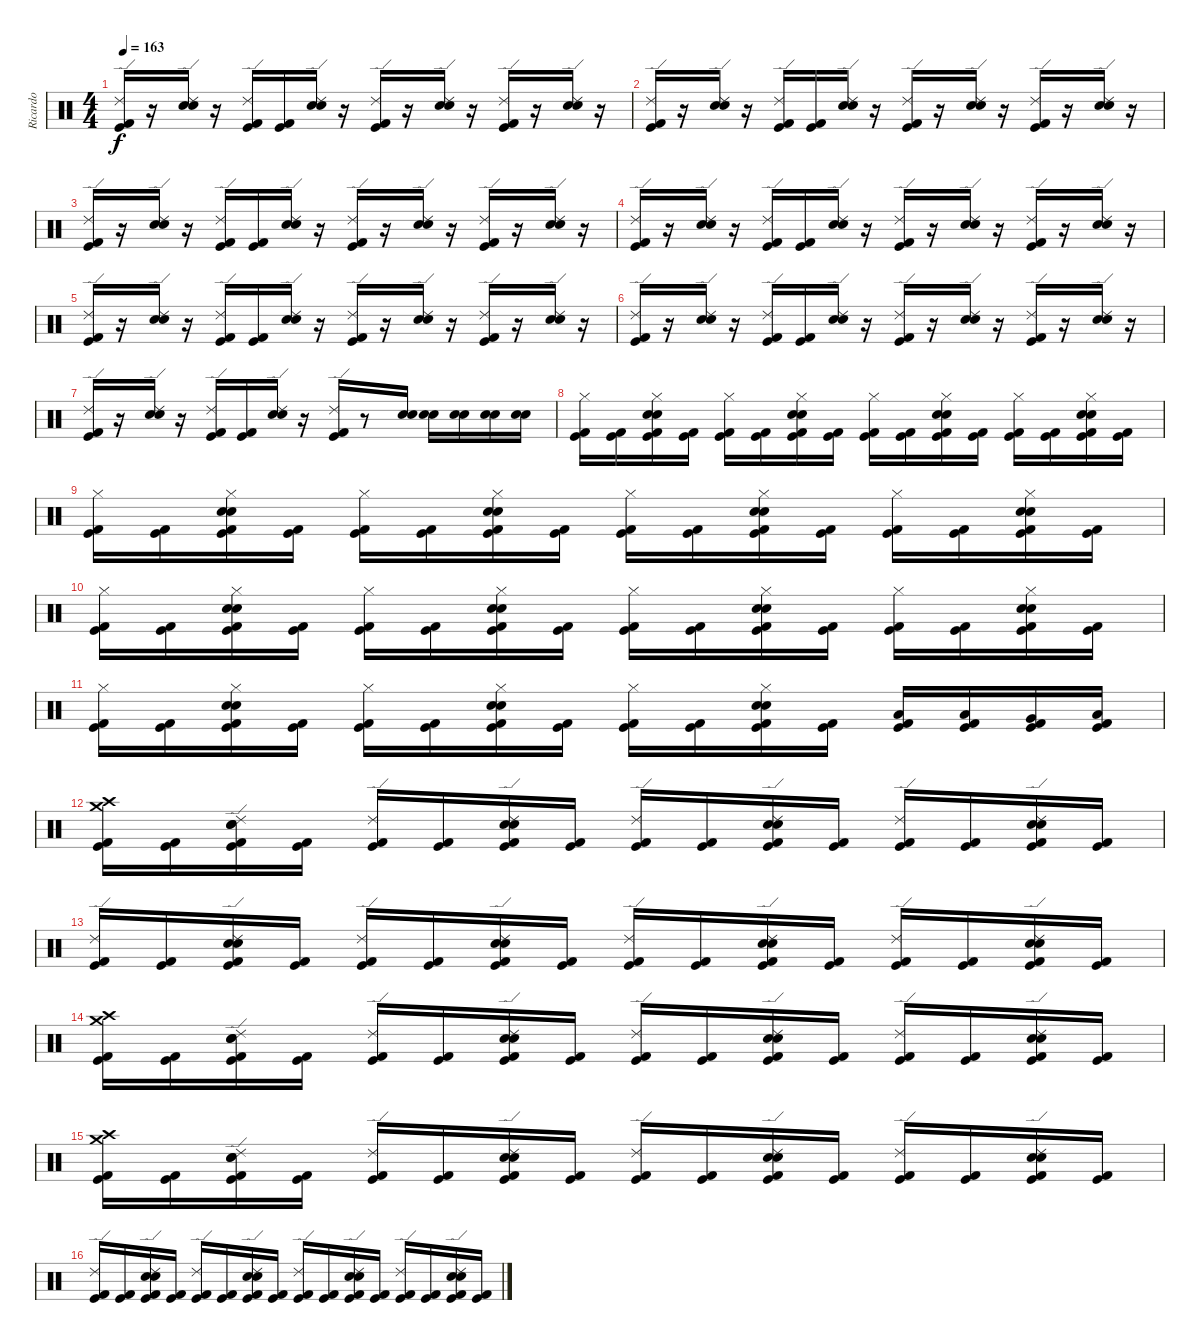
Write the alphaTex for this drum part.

\track ("Ricardo" "Ricardo") {instrument percussion}
\staff {score}
\articulation defaults
\ts (4 4)
\tempo 163
\clef neutral
\ks c
("Ride (edge) 2" "Kick (hit) 2" "Kick (hit)").16{dy f} r.16 ("Ride (edge) 2" "Snare (hit) 2" "Electric Snare (hit)").16 r.16 ("Ride (edge) 2" "Kick (hit) 2" "Kick (hit)").16 ("Kick (hit) 2" "Kick (hit)").16 ("Ride (edge) 2" "Snare (hit) 2" "Electric Snare (hit)").16 r.16 ("Ride (edge) 2" "Kick (hit) 2" "Kick (hit)").16 r.16 ("Ride (edge) 2" "Electric Snare (hit)" "Snare (hit) 2").16 r.16 ("Ride (edge) 2" "Kick (hit) 2" "Kick (hit)").16 r.16 ("Ride (edge) 2" "Electric Snare (hit)" "Snare (hit) 2").16 r.16 |
("Ride (edge) 2" "Kick (hit) 2" "Kick (hit)").16 r.16 ("Ride (edge) 2" "Snare (hit) 2" "Electric Snare (hit)").16 r.16 ("Ride (edge) 2" "Kick (hit) 2" "Kick (hit)").16 ("Kick (hit) 2" "Kick (hit)").16 ("Ride (edge) 2" "Snare (hit) 2" "Electric Snare (hit)").16 r.16 ("Ride (edge) 2" "Kick (hit) 2" "Kick (hit)").16 r.16 ("Ride (edge) 2" "Electric Snare (hit)" "Snare (hit) 2").16 r.16 ("Ride (edge) 2" "Kick (hit) 2" "Kick (hit)").16 r.16 ("Ride (edge) 2" "Electric Snare (hit)" "Snare (hit) 2").16 r.16 |
("Ride (edge) 2" "Kick (hit) 2" "Kick (hit)").16 r.16 ("Ride (edge) 2" "Snare (hit) 2" "Electric Snare (hit)").16 r.16 ("Ride (edge) 2" "Kick (hit) 2" "Kick (hit)").16 ("Kick (hit) 2" "Kick (hit)").16 ("Ride (edge) 2" "Snare (hit) 2" "Electric Snare (hit)").16 r.16 ("Ride (edge) 2" "Kick (hit) 2" "Kick (hit)").16 r.16 ("Ride (edge) 2" "Electric Snare (hit)" "Snare (hit) 2").16 r.16 ("Ride (edge) 2" "Kick (hit) 2" "Kick (hit)").16 r.16 ("Ride (edge) 2" "Electric Snare (hit)" "Snare (hit) 2").16 r.16 |
("Ride (edge) 2" "Kick (hit) 2" "Kick (hit)").16 r.16 ("Ride (edge) 2" "Snare (hit) 2" "Electric Snare (hit)").16 r.16 ("Ride (edge) 2" "Kick (hit) 2" "Kick (hit)").16 ("Kick (hit) 2" "Kick (hit)").16 ("Ride (edge) 2" "Snare (hit) 2" "Electric Snare (hit)").16 r.16 ("Ride (edge) 2" "Kick (hit) 2" "Kick (hit)").16 r.16 ("Ride (edge) 2" "Electric Snare (hit)" "Snare (hit) 2").16 r.16 ("Ride (edge) 2" "Kick (hit) 2" "Kick (hit)").16 r.16 ("Ride (edge) 2" "Electric Snare (hit)" "Snare (hit) 2").16 r.16 |
("Ride (edge) 2" "Kick (hit) 2" "Kick (hit)").16 r.16 ("Ride (edge) 2" "Snare (hit) 2" "Electric Snare (hit)").16 r.16 ("Ride (edge) 2" "Kick (hit) 2" "Kick (hit)").16 ("Kick (hit) 2" "Kick (hit)").16 ("Ride (edge) 2" "Snare (hit) 2" "Electric Snare (hit)").16 r.16 ("Ride (edge) 2" "Kick (hit) 2" "Kick (hit)").16 r.16 ("Ride (edge) 2" "Electric Snare (hit)" "Snare (hit) 2").16 r.16 ("Ride (edge) 2" "Kick (hit) 2" "Kick (hit)").16 r.16 ("Ride (edge) 2" "Electric Snare (hit)" "Snare (hit) 2").16 r.16 |
("Ride (edge) 2" "Kick (hit) 2" "Kick (hit)").16 r.16 ("Ride (edge) 2" "Snare (hit) 2" "Electric Snare (hit)").16 r.16 ("Ride (edge) 2" "Kick (hit) 2" "Kick (hit)").16 ("Kick (hit) 2" "Kick (hit)").16 ("Ride (edge) 2" "Snare (hit) 2" "Electric Snare (hit)").16 r.16 ("Ride (edge) 2" "Kick (hit) 2" "Kick (hit)").16 r.16 ("Ride (edge) 2" "Electric Snare (hit)" "Snare (hit) 2").16 r.16 ("Ride (edge) 2" "Kick (hit) 2" "Kick (hit)").16 r.16 ("Ride (edge) 2" "Electric Snare (hit)" "Snare (hit) 2").16 r.16 |
("Ride (edge) 2" "Kick (hit) 2" "Kick (hit)").16 r.16 ("Ride (edge) 2" "Snare (hit) 2" "Electric Snare (hit)").16 r.16 ("Ride (edge) 2" "Kick (hit) 2" "Kick (hit)").16 ("Kick (hit) 2" "Kick (hit)").16 ("Ride (edge) 2" "Snare (hit) 2" "Electric Snare (hit)").16 r.16 ("Ride (edge) 2" "Kick (hit) 2" "Kick (hit)").16 r.8 ("Electric Snare (hit)" "Snare (hit) 2").16 ("Electric Snare (hit)" "Snare (hit) 2").16 ("Electric Snare (hit)" "Snare (hit) 2").16 ("Electric Snare (hit)" "Snare (hit) 2").16 ("Electric Snare (hit)" "Snare (hit) 2").16 |
("Hi-Hat (closed)" "Kick (hit) 2" "Kick (hit)").16 ("Kick (hit) 2" "Kick (hit)").16 ("Electric Snare (hit)" "Snare (hit) 2" "Hi-Hat (closed)" "Kick (hit) 2" "Kick (hit)").16 ("Kick (hit) 2" "Kick (hit)").16 ("Hi-Hat (closed)" "Kick (hit) 2" "Kick (hit)").16 ("Kick (hit) 2" "Kick (hit)").16 ("Electric Snare (hit)" "Snare (hit) 2" "Hi-Hat (closed)" "Kick (hit) 2" "Kick (hit)").16 ("Kick (hit) 2" "Kick (hit)").16 ("Hi-Hat (closed)" "Kick (hit) 2" "Kick (hit)").16 ("Kick (hit) 2" "Kick (hit)").16 ("Electric Snare (hit)" "Snare (hit) 2" "Hi-Hat (closed)" "Kick (hit) 2" "Kick (hit)").16 ("Kick (hit) 2" "Kick (hit)").16 ("Hi-Hat (closed)" "Kick (hit) 2" "Kick (hit)").16 ("Kick (hit) 2" "Kick (hit)").16 ("Electric Snare (hit)" "Snare (hit) 2" "Hi-Hat (closed)" "Kick (hit) 2" "Kick (hit)").16 ("Kick (hit) 2" "Kick (hit)").16 |
("Hi-Hat (closed)" "Kick (hit) 2" "Kick (hit)").16 ("Kick (hit) 2" "Kick (hit)").16 ("Electric Snare (hit)" "Snare (hit) 2" "Hi-Hat (closed)" "Kick (hit) 2" "Kick (hit)").16 ("Kick (hit) 2" "Kick (hit)").16 ("Hi-Hat (closed)" "Kick (hit) 2" "Kick (hit)").16 ("Kick (hit) 2" "Kick (hit)").16 ("Electric Snare (hit)" "Snare (hit) 2" "Hi-Hat (closed)" "Kick (hit) 2" "Kick (hit)").16 ("Kick (hit) 2" "Kick (hit)").16 ("Hi-Hat (closed)" "Kick (hit) 2" "Kick (hit)").16 ("Kick (hit) 2" "Kick (hit)").16 ("Electric Snare (hit)" "Snare (hit) 2" "Hi-Hat (closed)" "Kick (hit) 2" "Kick (hit)").16 ("Kick (hit) 2" "Kick (hit)").16 ("Hi-Hat (closed)" "Kick (hit) 2" "Kick (hit)").16 ("Kick (hit) 2" "Kick (hit)").16 ("Electric Snare (hit)" "Snare (hit) 2" "Hi-Hat (closed)" "Kick (hit) 2" "Kick (hit)").16 ("Kick (hit) 2" "Kick (hit)").16 |
("Hi-Hat (closed)" "Kick (hit) 2" "Kick (hit)").16 ("Kick (hit) 2" "Kick (hit)").16 ("Electric Snare (hit)" "Snare (hit) 2" "Hi-Hat (closed)" "Kick (hit) 2" "Kick (hit)").16 ("Kick (hit) 2" "Kick (hit)").16 ("Hi-Hat (closed)" "Kick (hit) 2" "Kick (hit)").16 ("Kick (hit) 2" "Kick (hit)").16 ("Electric Snare (hit)" "Snare (hit) 2" "Hi-Hat (closed)" "Kick (hit) 2" "Kick (hit)").16 ("Kick (hit) 2" "Kick (hit)").16 ("Hi-Hat (closed)" "Kick (hit) 2" "Kick (hit)").16 ("Kick (hit) 2" "Kick (hit)").16 ("Electric Snare (hit)" "Snare (hit) 2" "Hi-Hat (closed)" "Kick (hit) 2" "Kick (hit)").16 ("Kick (hit) 2" "Kick (hit)").16 ("Hi-Hat (closed)" "Kick (hit) 2" "Kick (hit)").16 ("Kick (hit) 2" "Kick (hit)").16 ("Electric Snare (hit)" "Snare (hit) 2" "Hi-Hat (closed)" "Kick (hit) 2" "Kick (hit)").16 ("Kick (hit) 2" "Kick (hit)").16 |
("Hi-Hat (closed)" "Kick (hit) 2" "Kick (hit)").16 ("Kick (hit) 2" "Kick (hit)").16 ("Electric Snare (hit)" "Snare (hit) 2" "Hi-Hat (closed)" "Kick (hit) 2" "Kick (hit)").16 ("Kick (hit) 2" "Kick (hit)").16 ("Hi-Hat (closed)" "Kick (hit) 2" "Kick (hit)").16 ("Kick (hit) 2" "Kick (hit)").16 ("Electric Snare (hit)" "Snare (hit) 2" "Hi-Hat (closed)" "Kick (hit) 2" "Kick (hit)").16 ("Kick (hit) 2" "Kick (hit)").16 ("Hi-Hat (closed)" "Kick (hit) 2" "Kick (hit)").16 ("Kick (hit) 2" "Kick (hit)").16 ("Electric Snare (hit)" "Snare (hit) 2" "Hi-Hat (closed)" "Kick (hit) 2" "Kick (hit)").16 ("Kick (hit) 2" "Kick (hit)").16 ("Kick (hit) 2" "Kick (hit)" "Low Tom (hit)").16 ("Kick (hit) 2" "Kick (hit)" "Low Tom (hit)").16 ("Kick (hit) 2" "Kick (hit)" "Very Low Tom (hit)").16 ("Kick (hit) 2" "Kick (hit)" "Low Floor Tom (hit)").16 |
("Crash high (hit)" "Crash medium (hit)" "Kick (hit) 2" "Kick (hit)").16 ("Kick (hit) 2" "Kick (hit)").16 ("Electric Snare (hit)" "Snare (hit) 2" "Ride (edge) 2" "Kick (hit) 2" "Kick (hit)").16 ("Kick (hit) 2" "Kick (hit)").16 ("Ride (edge) 2" "Kick (hit) 2" "Kick (hit)").16 ("Kick (hit) 2" "Kick (hit)").16 ("Electric Snare (hit)" "Snare (hit) 2" "Ride (edge) 2" "Kick (hit)" "Kick (hit) 2").16 ("Kick (hit) 2" "Kick (hit)").16 ("Ride (edge) 2" "Kick (hit) 2" "Kick (hit)").16 ("Kick (hit) 2" "Kick (hit)").16 ("Electric Snare (hit)" "Snare (hit) 2" "Ride (edge) 2" "Kick (hit) 2" "Kick (hit)").16 ("Kick (hit) 2" "Kick (hit)").16 ("Ride (edge) 2" "Kick (hit) 2" "Kick (hit)").16 ("Kick (hit) 2" "Kick (hit)").16 ("Electric Snare (hit)" "Snare (hit) 2" "Ride (edge) 2" "Kick (hit) 2" "Kick (hit)").16 ("Kick (hit) 2" "Kick (hit)").16 |
("Ride (edge) 2" "Kick (hit) 2" "Kick (hit)").16 ("Kick (hit) 2" "Kick (hit)").16 ("Electric Snare (hit)" "Snare (hit) 2" "Ride (edge) 2" "Kick (hit) 2" "Kick (hit)").16 ("Kick (hit) 2" "Kick (hit)").16 ("Ride (edge) 2" "Kick (hit) 2" "Kick (hit)").16 ("Kick (hit) 2" "Kick (hit)").16 ("Electric Snare (hit)" "Snare (hit) 2" "Ride (edge) 2" "Kick (hit)" "Kick (hit) 2").16 ("Kick (hit) 2" "Kick (hit)").16 ("Ride (edge) 2" "Kick (hit) 2" "Kick (hit)").16 ("Kick (hit) 2" "Kick (hit)").16 ("Electric Snare (hit)" "Snare (hit) 2" "Ride (edge) 2" "Kick (hit) 2" "Kick (hit)").16 ("Kick (hit) 2" "Kick (hit)").16 ("Ride (edge) 2" "Kick (hit) 2" "Kick (hit)").16 ("Kick (hit) 2" "Kick (hit)").16 ("Electric Snare (hit)" "Snare (hit) 2" "Ride (edge) 2" "Kick (hit) 2" "Kick (hit)").16 ("Kick (hit) 2" "Kick (hit)").16 |
("Crash high (hit)" "Crash medium (hit)" "Kick (hit) 2" "Kick (hit)").16 ("Kick (hit) 2" "Kick (hit)").16 ("Electric Snare (hit)" "Snare (hit) 2" "Ride (edge) 2" "Kick (hit) 2" "Kick (hit)").16 ("Kick (hit) 2" "Kick (hit)").16 ("Ride (edge) 2" "Kick (hit) 2" "Kick (hit)").16 ("Kick (hit) 2" "Kick (hit)").16 ("Electric Snare (hit)" "Snare (hit) 2" "Ride (edge) 2" "Kick (hit)" "Kick (hit) 2").16 ("Kick (hit) 2" "Kick (hit)").16 ("Ride (edge) 2" "Kick (hit) 2" "Kick (hit)").16 ("Kick (hit) 2" "Kick (hit)").16 ("Electric Snare (hit)" "Snare (hit) 2" "Ride (edge) 2" "Kick (hit) 2" "Kick (hit)").16 ("Kick (hit) 2" "Kick (hit)").16 ("Ride (edge) 2" "Kick (hit) 2" "Kick (hit)").16 ("Kick (hit) 2" "Kick (hit)").16 ("Electric Snare (hit)" "Snare (hit) 2" "Ride (edge) 2" "Kick (hit) 2" "Kick (hit)").16 ("Kick (hit) 2" "Kick (hit)").16 |
("Crash high (hit)" "Crash medium (hit)" "Kick (hit) 2" "Kick (hit)").16 ("Kick (hit) 2" "Kick (hit)").16 ("Electric Snare (hit)" "Snare (hit) 2" "Ride (edge) 2" "Kick (hit) 2" "Kick (hit)").16 ("Kick (hit) 2" "Kick (hit)").16 ("Ride (edge) 2" "Kick (hit) 2" "Kick (hit)").16 ("Kick (hit) 2" "Kick (hit)").16 ("Electric Snare (hit)" "Snare (hit) 2" "Ride (edge) 2" "Kick (hit)" "Kick (hit) 2").16 ("Kick (hit) 2" "Kick (hit)").16 ("Ride (edge) 2" "Kick (hit) 2" "Kick (hit)").16 ("Kick (hit) 2" "Kick (hit)").16 ("Electric Snare (hit)" "Snare (hit) 2" "Ride (edge) 2" "Kick (hit) 2" "Kick (hit)").16 ("Kick (hit) 2" "Kick (hit)").16 ("Ride (edge) 2" "Kick (hit) 2" "Kick (hit)").16 ("Kick (hit) 2" "Kick (hit)").16 ("Electric Snare (hit)" "Snare (hit) 2" "Ride (edge) 2" "Kick (hit) 2" "Kick (hit)").16 ("Kick (hit) 2" "Kick (hit)").16 |
("Ride (edge) 2" "Kick (hit) 2" "Kick (hit)").16 ("Kick (hit) 2" "Kick (hit)").16 ("Electric Snare (hit)" "Snare (hit) 2" "Ride (edge) 2" "Kick (hit) 2" "Kick (hit)").16 ("Kick (hit) 2" "Kick (hit)").16 ("Ride (edge) 2" "Kick (hit) 2" "Kick (hit)").16 ("Kick (hit) 2" "Kick (hit)").16 ("Electric Snare (hit)" "Snare (hit) 2" "Ride (edge) 2" "Kick (hit)" "Kick (hit) 2").16 ("Kick (hit) 2" "Kick (hit)").16 ("Ride (edge) 2" "Kick (hit) 2" "Kick (hit)").16 ("Kick (hit) 2" "Kick (hit)").16 ("Electric Snare (hit)" "Snare (hit) 2" "Ride (edge) 2" "Kick (hit) 2" "Kick (hit)").16 ("Kick (hit) 2" "Kick (hit)").16 ("Ride (edge) 2" "Kick (hit) 2" "Kick (hit)").16 ("Kick (hit) 2" "Kick (hit)").16 ("Electric Snare (hit)" "Snare (hit) 2" "Ride (edge) 2" "Kick (hit) 2" "Kick (hit)").16 ("Kick (hit) 2" "Kick (hit)").16
